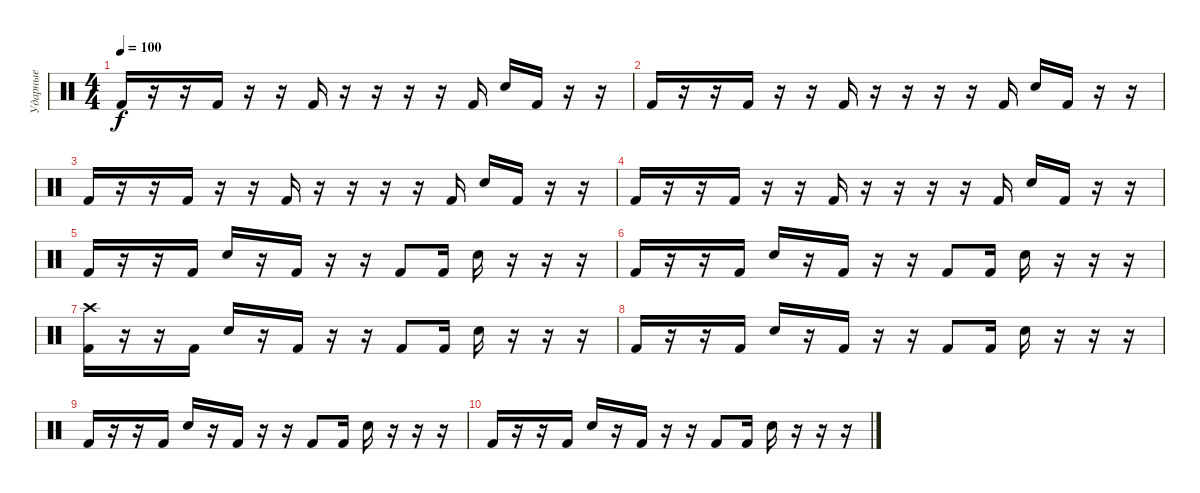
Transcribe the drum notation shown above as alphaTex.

\track ("Ударные" "Ударные") {instrument percussion}
\staff {score}
\articulation defaults
\ts (4 4)
\tempo 100
\clef neutral
\ks c "Kick (hit) 2".16{dy f}
r.16 r.16 "Kick (hit) 2".16 r.16 r.16 "Kick (hit) 2".16 r.16 r.16 r.16 r.16 "Kick (hit) 2".16 "Electric Snare (hit)".16 "Kick (hit) 2".16 r.16 r.16 |
"Kick (hit) 2".16 r.16 r.16 "Kick (hit) 2".16 r.16 r.16 "Kick (hit) 2".16 r.16 r.16 r.16 r.16 "Kick (hit) 2".16 "Electric Snare (hit)".16 "Kick (hit) 2".16 r.16 r.16 |
"Kick (hit) 2".16 r.16 r.16 "Kick (hit) 2".16 r.16 r.16 "Kick (hit) 2".16 r.16 r.16 r.16 r.16 "Kick (hit) 2".16 "Electric Snare (hit)".16 "Kick (hit) 2".16 r.16 r.16 |
"Kick (hit) 2".16 r.16 r.16 "Kick (hit) 2".16 r.16 r.16 "Kick (hit) 2".16 r.16 r.16 r.16 r.16 "Kick (hit) 2".16 "Electric Snare (hit)".16 "Kick (hit) 2".16 r.16 r.16 |
"Kick (hit) 2".16 r.16 r.16 "Kick (hit) 2".16 "Electric Snare (hit)".16 r.16 "Kick (hit) 2".16 r.16 r.16 "Kick (hit) 2".8 "Kick (hit) 2".16 "Electric Snare (hit)".16 r.16 r.16 r.16 |
"Kick (hit) 2".16 r.16 r.16 "Kick (hit) 2".16 "Electric Snare (hit)".16 r.16 "Kick (hit) 2".16 r.16 r.16 "Kick (hit) 2".8 "Kick (hit) 2".16 "Electric Snare (hit)".16 r.16 r.16 r.16 |
("Kick (hit) 2" "Crash high (hit)").16 r.16 r.16 "Kick (hit) 2".16 "Electric Snare (hit)".16 r.16 "Kick (hit) 2".16 r.16 r.16 "Kick (hit) 2".8 "Kick (hit) 2".16 "Electric Snare (hit)".16 r.16 r.16 r.16 |
"Kick (hit) 2".16 r.16 r.16 "Kick (hit) 2".16 "Electric Snare (hit)".16 r.16 "Kick (hit) 2".16 r.16 r.16 "Kick (hit) 2".8 "Kick (hit) 2".16 "Electric Snare (hit)".16 r.16 r.16 r.16 |
"Kick (hit) 2".16 r.16 r.16 "Kick (hit) 2".16 "Electric Snare (hit)".16 r.16 "Kick (hit) 2".16 r.16 r.16 "Kick (hit) 2".8 "Kick (hit) 2".16 "Electric Snare (hit)".16 r.16 r.16 r.16 |
"Kick (hit) 2".16 r.16 r.16 "Kick (hit) 2".16 "Electric Snare (hit)".16 r.16 "Kick (hit) 2".16 r.16 r.16 "Kick (hit) 2".8 "Kick (hit) 2".16 "Electric Snare (hit)".16 r.16 r.16 r.16
